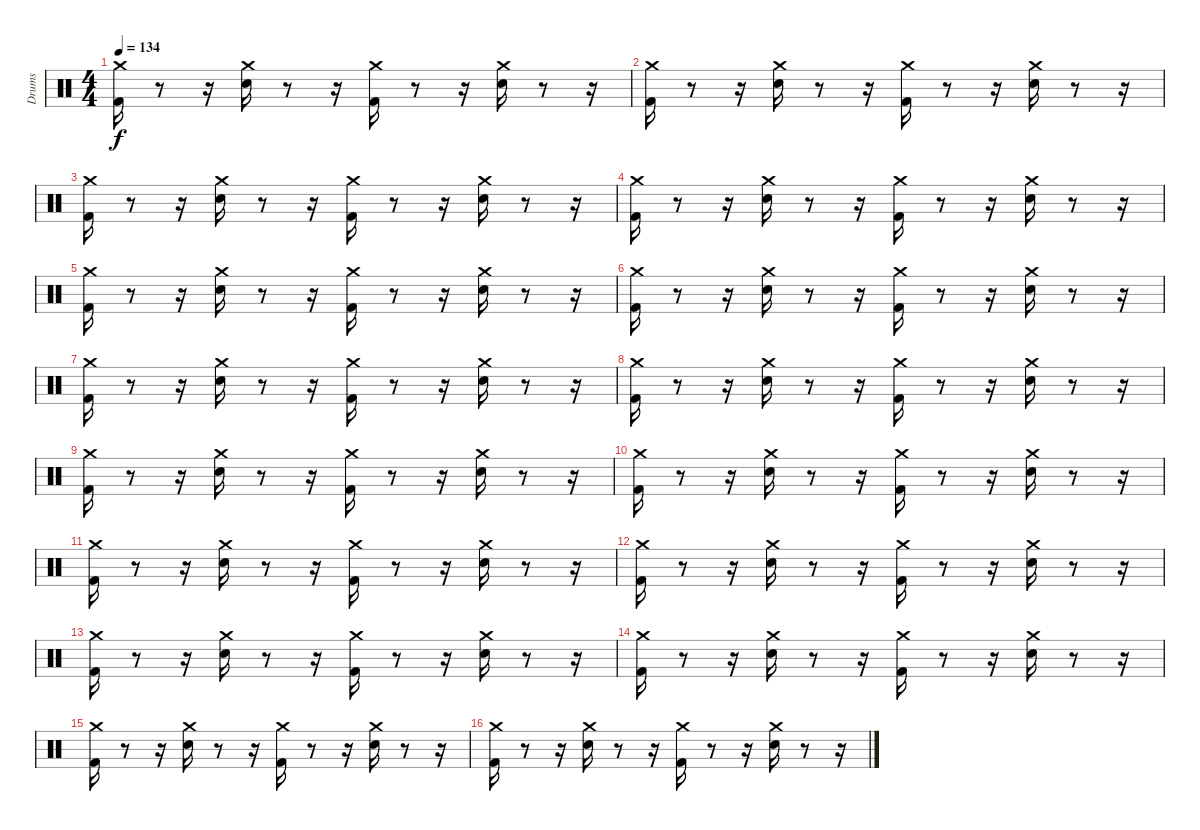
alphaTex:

\track ("Drums               " "Drums     ") {instrument percussion}
\staff {score}
\articulation defaults
\ts (4 4)
\tempo 134
\clef neutral
\ks c
("Kick (hit) 2" "Crash medium (hit)").16{dy f} r.8 r.16 ("Snare (hit) 2" "Crash medium (hit)").16 r.8 r.16 ("Kick (hit) 2" "Crash medium (hit)").16 r.8 r.16 ("Snare (hit) 2" "Crash medium (hit)").16 r.8 r.16 |
("Kick (hit) 2" "Crash medium (hit)").16 r.8 r.16 ("Snare (hit) 2" "Crash medium (hit)").16 r.8 r.16 ("Kick (hit) 2" "Crash medium (hit)").16 r.8 r.16 ("Snare (hit) 2" "Crash medium (hit)").16 r.8 r.16 |
("Kick (hit) 2" "Crash medium (hit)").16 r.8 r.16 ("Snare (hit) 2" "Crash medium (hit)").16 r.8 r.16 ("Kick (hit) 2" "Crash medium (hit)").16 r.8 r.16 ("Snare (hit) 2" "Crash medium (hit)").16 r.8 r.16 |
("Kick (hit) 2" "Crash medium (hit)").16 r.8 r.16 ("Snare (hit) 2" "Crash medium (hit)").16 r.8 r.16 ("Kick (hit) 2" "Crash medium (hit)").16 r.8 r.16 ("Snare (hit) 2" "Crash medium (hit)").16 r.8 r.16 |
("Kick (hit) 2" "Crash medium (hit)").16 r.8 r.16 ("Snare (hit) 2" "Crash medium (hit)").16 r.8 r.16 ("Kick (hit) 2" "Crash medium (hit)").16 r.8 r.16 ("Snare (hit) 2" "Crash medium (hit)").16 r.8 r.16 |
("Kick (hit) 2" "Crash medium (hit)").16 r.8 r.16 ("Snare (hit) 2" "Crash medium (hit)").16 r.8 r.16 ("Kick (hit) 2" "Crash medium (hit)").16 r.8 r.16 ("Snare (hit) 2" "Crash medium (hit)").16 r.8 r.16 |
("Kick (hit) 2" "Crash medium (hit)").16 r.8 r.16 ("Snare (hit) 2" "Crash medium (hit)").16 r.8 r.16 ("Kick (hit) 2" "Crash medium (hit)").16 r.8 r.16 ("Snare (hit) 2" "Crash medium (hit)").16 r.8 r.16 |
("Kick (hit) 2" "Crash medium (hit)").16 r.8 r.16 ("Snare (hit) 2" "Crash medium (hit)").16 r.8 r.16 ("Kick (hit) 2" "Crash medium (hit)").16 r.8 r.16 ("Snare (hit) 2" "Crash medium (hit)").16 r.8 r.16 |
("Kick (hit) 2" "Crash medium (hit)").16 r.8 r.16 ("Snare (hit) 2" "Crash medium (hit)").16 r.8 r.16 ("Kick (hit) 2" "Crash medium (hit)").16 r.8 r.16 ("Snare (hit) 2" "Crash medium (hit)").16 r.8 r.16 |
("Kick (hit) 2" "Crash medium (hit)").16 r.8 r.16 ("Snare (hit) 2" "Crash medium (hit)").16 r.8 r.16 ("Kick (hit) 2" "Crash medium (hit)").16 r.8 r.16 ("Snare (hit) 2" "Crash medium (hit)").16 r.8 r.16 |
("Kick (hit) 2" "Crash medium (hit)").16 r.8 r.16 ("Snare (hit) 2" "Crash medium (hit)").16 r.8 r.16 ("Kick (hit) 2" "Crash medium (hit)").16 r.8 r.16 ("Snare (hit) 2" "Crash medium (hit)").16 r.8 r.16 |
("Kick (hit) 2" "Crash medium (hit)").16 r.8 r.16 ("Snare (hit) 2" "Crash medium (hit)").16 r.8 r.16 ("Kick (hit) 2" "Crash medium (hit)").16 r.8 r.16 ("Snare (hit) 2" "Crash medium (hit)").16 r.8 r.16 |
("Kick (hit) 2" "Crash medium (hit)").16 r.8 r.16 ("Snare (hit) 2" "Crash medium (hit)").16 r.8 r.16 ("Kick (hit) 2" "Crash medium (hit)").16 r.8 r.16 ("Snare (hit) 2" "Crash medium (hit)").16 r.8 r.16 |
("Kick (hit) 2" "Crash medium (hit)").16 r.8 r.16 ("Snare (hit) 2" "Crash medium (hit)").16 r.8 r.16 ("Kick (hit) 2" "Crash medium (hit)").16 r.8 r.16 ("Snare (hit) 2" "Crash medium (hit)").16 r.8 r.16 |
("Kick (hit) 2" "Crash medium (hit)").16 r.8 r.16 ("Snare (hit) 2" "Crash medium (hit)").16 r.8 r.16 ("Kick (hit) 2" "Crash medium (hit)").16 r.8 r.16 ("Snare (hit) 2" "Crash medium (hit)").16 r.8 r.16 |
("Kick (hit) 2" "Crash medium (hit)").16 r.8 r.16 ("Snare (hit) 2" "Crash medium (hit)").16 r.8 r.16 ("Kick (hit) 2" "Crash medium (hit)").16 r.8 r.16 ("Snare (hit) 2" "Crash medium (hit)").16 r.8 r.16
